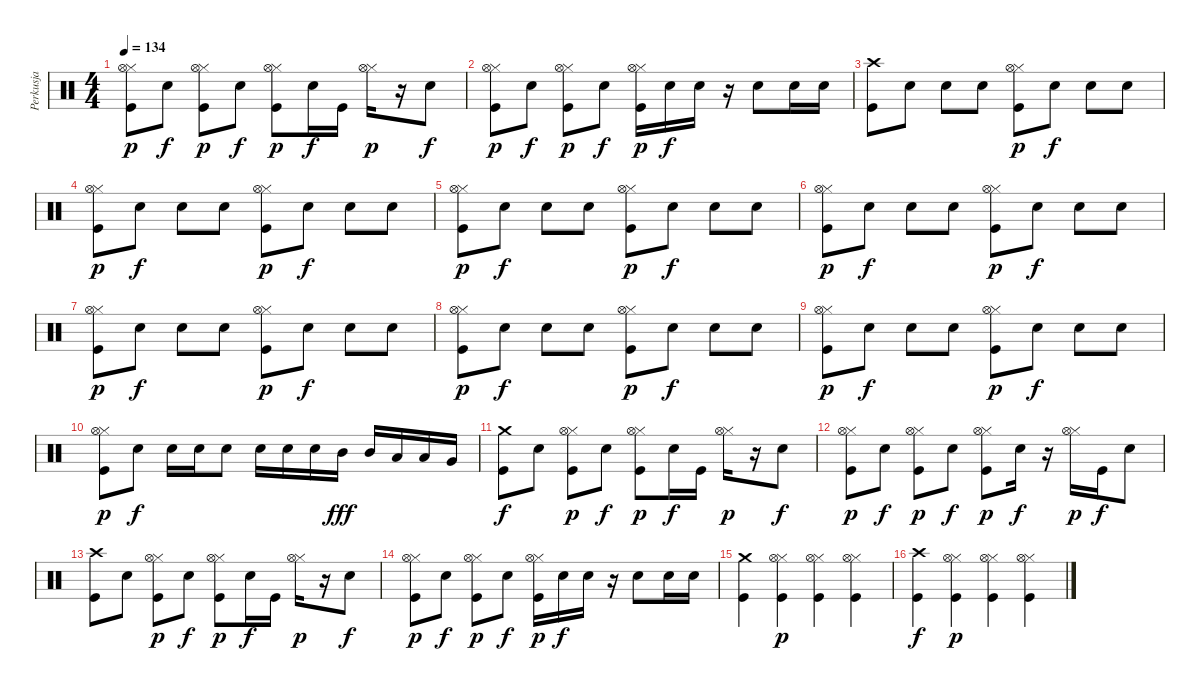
\track ("Perkusja" "Perkusja") {instrument percussion}
\staff {score}
\articulation defaults
\ts (4 4)
\tempo 134
\clef neutral
\ks c
("Hi-Hat (closed)" "Hi-Hat (open)" "Kick (hit)").8{dy p} "Electric Snare (hit)".8{dy f} ("Hi-Hat (closed)" "Hi-Hat (open)" "Kick (hit)").8{dy p} "Electric Snare (hit)".8{dy f} ("Hi-Hat (closed)" "Hi-Hat (open)" "Kick (hit)").8{dy p} "Electric Snare (hit)".16{dy f} "Kick (hit)".16 ("Hi-Hat (closed)" "Hi-Hat (open)").16{dy p} r.16 "Electric Snare (hit)".8{dy f} |
("Hi-Hat (closed)" "Hi-Hat (open)" "Kick (hit)").8{dy p} "Electric Snare (hit)".8{dy f} ("Hi-Hat (closed)" "Hi-Hat (open)" "Kick (hit)").8{dy p} "Electric Snare (hit)".8{dy f} ("Hi-Hat (closed)" "Hi-Hat (open)" "Kick (hit)").16{dy p} "Electric Snare (hit)".16{dy f} "Electric Snare (hit)".16 r.16 "Electric Snare (hit)".8 "Electric Snare (hit)".16 "Electric Snare (hit)".16 |
("Crash high (hit)" "Kick (hit)").8 "Electric Snare (hit)".8 "Electric Snare (hit)".8 "Electric Snare (hit)".8 ("Hi-Hat (closed)" "Hi-Hat (open)" "Kick (hit)").8{dy p} "Electric Snare (hit)".8{dy f} "Electric Snare (hit)".8 "Electric Snare (hit)".8 |
("Hi-Hat (closed)" "Hi-Hat (open)" "Kick (hit)").8{dy p} "Electric Snare (hit)".8{dy f} "Electric Snare (hit)".8 "Electric Snare (hit)".8 ("Hi-Hat (closed)" "Hi-Hat (open)" "Kick (hit)").8{dy p} "Electric Snare (hit)".8{dy f} "Electric Snare (hit)".8 "Electric Snare (hit)".8 |
("Hi-Hat (closed)" "Hi-Hat (open)" "Kick (hit)").8{dy p} "Electric Snare (hit)".8{dy f} "Electric Snare (hit)".8 "Electric Snare (hit)".8 ("Hi-Hat (closed)" "Hi-Hat (open)" "Kick (hit)").8{dy p} "Electric Snare (hit)".8{dy f} "Electric Snare (hit)".8 "Electric Snare (hit)".8 |
("Hi-Hat (closed)" "Hi-Hat (open)" "Kick (hit)").8{dy p} "Electric Snare (hit)".8{dy f} "Electric Snare (hit)".8 "Electric Snare (hit)".8 ("Hi-Hat (closed)" "Hi-Hat (open)" "Kick (hit)").8{dy p} "Electric Snare (hit)".8{dy f} "Electric Snare (hit)".8 "Electric Snare (hit)".8 |
("Hi-Hat (closed)" "Hi-Hat (open)" "Kick (hit)").8{dy p} "Electric Snare (hit)".8{dy f} "Electric Snare (hit)".8 "Electric Snare (hit)".8 ("Hi-Hat (closed)" "Hi-Hat (open)" "Kick (hit)").8{dy p} "Electric Snare (hit)".8{dy f} "Electric Snare (hit)".8 "Electric Snare (hit)".8 |
("Hi-Hat (closed)" "Hi-Hat (open)" "Kick (hit)").8{dy p} "Electric Snare (hit)".8{dy f} "Electric Snare (hit)".8 "Electric Snare (hit)".8 ("Hi-Hat (closed)" "Hi-Hat (open)" "Kick (hit)").8{dy p} "Electric Snare (hit)".8{dy f} "Electric Snare (hit)".8 "Electric Snare (hit)".8 |
("Hi-Hat (closed)" "Hi-Hat (open)" "Kick (hit)").8{dy p} "Electric Snare (hit)".8{dy f} "Electric Snare (hit)".8 "Electric Snare (hit)".8 ("Hi-Hat (closed)" "Hi-Hat (open)" "Kick (hit)").8{dy p} "Electric Snare (hit)".8{dy f} "Electric Snare (hit)".8 "Electric Snare (hit)".8 |
("Hi-Hat (closed)" "Hi-Hat (open)" "Kick (hit)").8{dy p} "Electric Snare (hit)".8{dy f} "Electric Snare (hit)".16 "Electric Snare (hit)".16 "Electric Snare (hit)".8 "Electric Snare (hit)".16 "Electric Snare (hit)".16 "Electric Snare (hit)".16 "Mid Tom (hit)".16{dy fff} "Mid Tom (hit)".16 "Low Tom (hit)".16 "Low Tom (hit)".16 "Very Low Tom (hit)".16 |
("Crash medium (hit)" "Kick (hit)").8{dy f} "Electric Snare (hit)".8 ("Hi-Hat (closed)" "Hi-Hat (open)" "Kick (hit)").8{dy p} "Electric Snare (hit)".8{dy f} ("Hi-Hat (closed)" "Hi-Hat (open)" "Kick (hit)").8{dy p} "Electric Snare (hit)".16{dy f} "Kick (hit)".16 ("Hi-Hat (closed)" "Hi-Hat (open)").16{dy p} r.16 "Electric Snare (hit)".8{dy f} |
("Hi-Hat (closed)" "Hi-Hat (open)" "Kick (hit)").8{dy p} "Electric Snare (hit)".8{dy f} ("Hi-Hat (closed)" "Hi-Hat (open)" "Kick (hit)").8{dy p} "Electric Snare (hit)".8{dy f} ("Hi-Hat (closed)" "Hi-Hat (open)" "Kick (hit)").8{dy p} "Electric Snare (hit)".16{dy f} r.16 ("Hi-Hat (closed)" "Hi-Hat (open)").16{dy p} "Kick (hit)".16{dy f} "Electric Snare (hit)".8 |
("Crash high (hit)" "Kick (hit)").8 "Electric Snare (hit)".8 ("Hi-Hat (closed)" "Hi-Hat (open)" "Kick (hit)").8{dy p} "Electric Snare (hit)".8{dy f} ("Hi-Hat (closed)" "Hi-Hat (open)" "Kick (hit)").8{dy p} "Electric Snare (hit)".16{dy f} "Kick (hit)".16 ("Hi-Hat (closed)" "Hi-Hat (open)").16{dy p} r.16 "Electric Snare (hit)".8{dy f} |
("Hi-Hat (closed)" "Hi-Hat (open)" "Kick (hit)").8{dy p} "Electric Snare (hit)".8{dy f} ("Hi-Hat (closed)" "Hi-Hat (open)" "Kick (hit)").8{dy p} "Electric Snare (hit)".8{dy f} ("Hi-Hat (closed)" "Hi-Hat (open)" "Kick (hit)").16{dy p} "Electric Snare (hit)".16{dy f} "Electric Snare (hit)".16 r.16 "Electric Snare (hit)".8 "Electric Snare (hit)".16 "Electric Snare (hit)".16 |
("Crash medium (hit)" "Kick (hit)").4 ("Hi-Hat (closed)" "Hi-Hat (open)" "Kick (hit)").4{dy p} ("Hi-Hat (closed)" "Hi-Hat (open)" "Kick (hit)").4 ("Hi-Hat (closed)" "Hi-Hat (open)" "Kick (hit)").4 |
("Crash high (hit)" "Kick (hit)").4{dy f} ("Hi-Hat (closed)" "Hi-Hat (open)" "Kick (hit)").4{dy p} ("Hi-Hat (closed)" "Hi-Hat (open)" "Kick (hit)").4 ("Hi-Hat (closed)" "Hi-Hat (open)" "Kick (hit)").4
